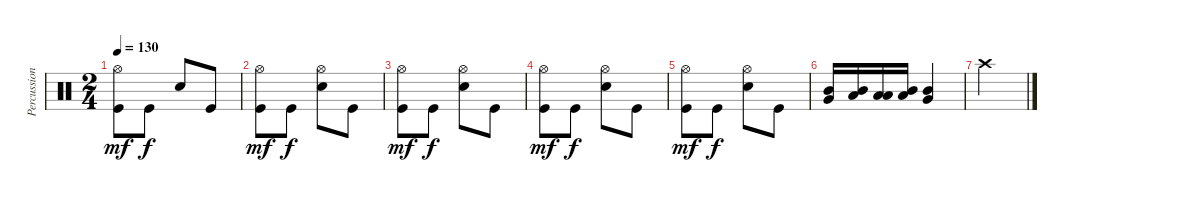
\track ("Percussion" "Percussion") {instrument percussion}
\staff {score}
\articulation defaults
\ts (2 4)
\tempo 130
\clef neutral
\ks c
("Hi-Hat (open)" "Kick (hit)").8{dy mf} "Kick (hit)".8{dy f} "Snare (hit) 2".8 "Kick (hit)".8 |
("Hi-Hat (open)" "Kick (hit)").8{dy mf} "Kick (hit)".8{dy f} ("Snare (hit) 2" "Hi-Hat (open)").8 "Kick (hit)".8 |
("Hi-Hat (open)" "Kick (hit)").8{dy mf} "Kick (hit)".8{dy f} ("Snare (hit) 2" "Hi-Hat (open)").8 "Kick (hit)".8 |
("Hi-Hat (open)" "Kick (hit)").8{dy mf} "Kick (hit)".8{dy f} ("Snare (hit) 2" "Hi-Hat (open)").8 "Kick (hit)".8 |
("Hi-Hat (open)" "Kick (hit)").8{dy mf} "Kick (hit)".8{dy f} ("Snare (hit) 2" "Hi-Hat (open)").8 "Kick (hit)".8 |
("Mid Tom (hit)" "Very Low Tom (hit)").16 ("Mid Tom (hit)" "Low Tom (hit)").16 ("Low Tom (hit)" "Low Tom (hit)").16 ("Low Tom (hit)" "Mid Tom (hit)").16 ("Very Low Tom (hit)" "Mid Tom (hit)").4 |
"Crash high (hit)".2
